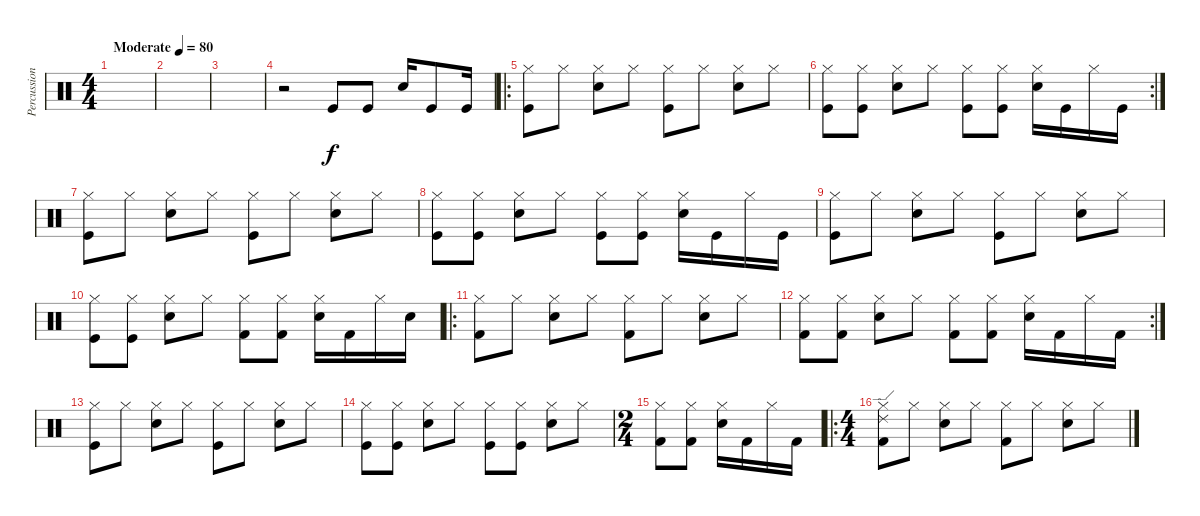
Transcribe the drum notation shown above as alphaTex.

\track ("Percussion" "Percussion") {instrument percussion}
\staff {score}
\articulation defaults
\ts (4 4)
\tempo (80 "Moderate")
\clef neutral
\ks c
|
|
|
r.2 "Kick (hit)".8 "Kick (hit)".8 "Electric Snare (hit)".16 "Kick (hit)".8 "Kick (hit)".16 |
\ro
("Hi-Hat (closed)" "Kick (hit)").8 "Hi-Hat (closed)".8 ("Hi-Hat (closed)" "Electric Snare (hit)").8 "Hi-Hat (closed)".8 ("Hi-Hat (closed)" "Kick (hit)").8 "Hi-Hat (closed)".8 ("Hi-Hat (closed)" "Electric Snare (hit)").8 "Hi-Hat (closed)".8 |
\rc 2
("Hi-Hat (closed)" "Kick (hit)").8 ("Hi-Hat (closed)" "Kick (hit)").8 ("Hi-Hat (closed)" "Electric Snare (hit)").8 "Hi-Hat (closed)".8 ("Hi-Hat (closed)" "Kick (hit)").8 ("Hi-Hat (closed)" "Kick (hit)").8 ("Hi-Hat (closed)" "Electric Snare (hit)").16 "Kick (hit)".16 "Hi-Hat (closed)".16 "Kick (hit)".16 |
("Hi-Hat (closed)" "Kick (hit)").8 "Hi-Hat (closed)".8 ("Hi-Hat (closed)" "Electric Snare (hit)").8 "Hi-Hat (closed)".8 ("Hi-Hat (closed)" "Kick (hit)").8 "Hi-Hat (closed)".8 ("Hi-Hat (closed)" "Electric Snare (hit)").8 "Hi-Hat (closed)".8 |
("Hi-Hat (closed)" "Kick (hit)").8 ("Hi-Hat (closed)" "Kick (hit)").8 ("Hi-Hat (closed)" "Electric Snare (hit)").8 "Hi-Hat (closed)".8 ("Hi-Hat (closed)" "Kick (hit)").8 ("Hi-Hat (closed)" "Kick (hit)").8 ("Hi-Hat (closed)" "Electric Snare (hit)").16 "Kick (hit)".16 "Hi-Hat (closed)".16 "Kick (hit)".16 |
("Hi-Hat (closed)" "Kick (hit)").8 "Hi-Hat (closed)".8 ("Hi-Hat (closed)" "Electric Snare (hit)").8 "Hi-Hat (closed)".8 ("Hi-Hat (closed)" "Kick (hit)").8 "Hi-Hat (closed)".8 ("Hi-Hat (closed)" "Electric Snare (hit)").8 "Hi-Hat (closed)".8 |
("Hi-Hat (closed)" "Kick (hit)").8 ("Hi-Hat (closed)" "Kick (hit)").8 ("Hi-Hat (closed)" "Electric Snare (hit)").8 "Hi-Hat (closed)".8 ("Hi-Hat (closed)" "Kick (hit) 2").8 ("Hi-Hat (closed)" "Kick (hit) 2").8 ("Hi-Hat (closed)" "Electric Snare (hit)").16 "Kick (hit) 2".16 "Hi-Hat (closed)".16 "Electric Snare (hit)".16 |
\ro
("Hi-Hat (closed)" "Kick (hit) 2").8 "Hi-Hat (closed)".8 ("Hi-Hat (closed)" "Electric Snare (hit)").8 "Hi-Hat (closed)".8 ("Hi-Hat (closed)" "Kick (hit) 2").8 "Hi-Hat (closed)".8 ("Hi-Hat (closed)" "Electric Snare (hit)").8 "Hi-Hat (closed)".8 |
\rc 2
("Hi-Hat (closed)" "Kick (hit) 2").8 ("Hi-Hat (closed)" "Kick (hit) 2").8 ("Hi-Hat (closed)" "Electric Snare (hit)").8 "Hi-Hat (closed)".8 ("Hi-Hat (closed)" "Kick (hit) 2").8 ("Hi-Hat (closed)" "Kick (hit) 2").8 ("Hi-Hat (closed)" "Electric Snare (hit)").16 "Kick (hit) 2".16 "Hi-Hat (closed)".16 "Kick (hit) 2".16 |
("Hi-Hat (closed)" "Kick (hit)").8 "Hi-Hat (closed)".8 ("Hi-Hat (closed)" "Electric Snare (hit)").8 "Hi-Hat (closed)".8 ("Hi-Hat (closed)" "Kick (hit)").8 "Hi-Hat (closed)".8 ("Hi-Hat (closed)" "Electric Snare (hit)").8 "Hi-Hat (closed)".8 |
("Hi-Hat (closed)" "Kick (hit)").8 ("Hi-Hat (closed)" "Kick (hit)").8 ("Hi-Hat (closed)" "Electric Snare (hit)").8 "Hi-Hat (closed)".8 ("Hi-Hat (closed)" "Kick (hit)").8 ("Hi-Hat (closed)" "Kick (hit)").8 ("Hi-Hat (closed)" "Electric Snare (hit)").8 "Hi-Hat (closed)".8 |
\ts (2 4)
("Hi-Hat (closed)" "Kick (hit) 2").8 ("Hi-Hat (closed)" "Kick (hit) 2").8 ("Hi-Hat (closed)" "Electric Snare (hit)").16 "Kick (hit) 2".16 "Hi-Hat (closed)".16 "Kick (hit) 2".16 |
\ro
\ts (4 4)
("Hi-Hat (closed)" "Kick (hit) 2" "Ride (edge) 2").8 "Hi-Hat (closed)".8 ("Hi-Hat (closed)" "Electric Snare (hit)").8 "Hi-Hat (closed)".8 ("Hi-Hat (closed)" "Kick (hit) 2").8 "Hi-Hat (closed)".8 ("Hi-Hat (closed)" "Electric Snare (hit)").8 "Hi-Hat (closed)".8
